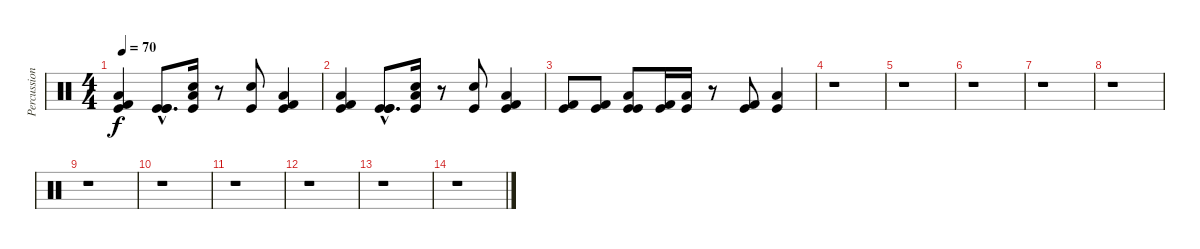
\track ("Percussion" "Percussion") {instrument percussion}
\staff {score}
\articulation defaults
\ts (4 4)
\tempo 70
\clef neutral
\ks c
("Low Floor Tom (hit)" "Kick (hit)" "Kick (hit) 2").4{dy f} ("Kick (hit)"{hac} "Kick (hit)"{hac} "Kick (hit)"{hac}).8{d} ("Snare (hit) 2" "Low Floor Tom (hit)" "Kick (hit)").16 r.8 ("Snare (hit) 2" "Kick (hit)").8 ("Low Floor Tom (hit)" "Kick (hit) 2" "Kick (hit)").4 |
("Low Floor Tom (hit)" "Kick (hit)" "Kick (hit) 2").4 ("Kick (hit)"{hac} "Kick (hit)"{hac} "Kick (hit)"{hac}).8{d} ("Snare (hit) 2" "Low Floor Tom (hit)" "Kick (hit)").16 r.8 ("Snare (hit) 2" "Kick (hit)").8 ("Low Floor Tom (hit)" "Kick (hit) 2" "Kick (hit)").4 |
("Kick (hit)" "Kick (hit) 2").8 ("Kick (hit)" "Kick (hit) 2").8 ("Kick (hit)" "Low Floor Tom (hit)" "Kick (hit)").8 ("Kick (hit) 2" "Kick (hit)").16 ("Low Floor Tom (hit)" "Kick (hit)").16 r.8 ("Kick (hit)" "Kick (hit) 2").8 ("Low Floor Tom (hit)" "Kick (hit)").4 |
r.1 |
r.1 |
r.1 |
r.1 |
r.1 |
r.1 |
r.1 |
r.1 |
r.1 |
r.1 |
r.1
